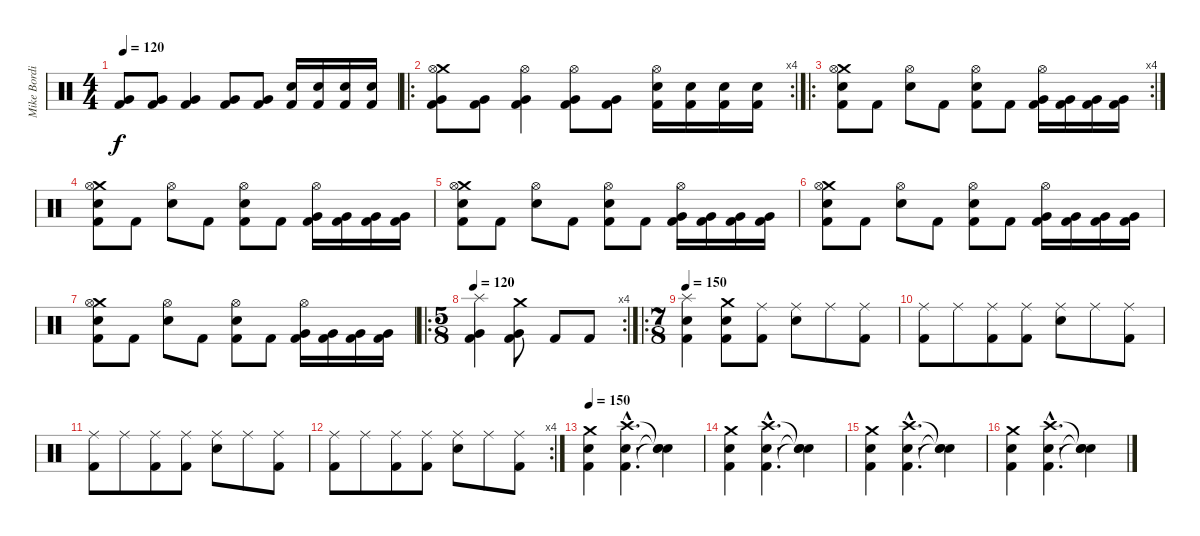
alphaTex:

\track ("Mike Bordin" "Mike Bordi") {instrument percussion}
\staff {score}
\articulation defaults
\ts (4 4)
\tempo 120
\clef neutral
\ks c
("Very Low Tom (hit)" "Kick (hit) 2").8{dy f} ("Very Low Tom (hit)" "Kick (hit) 2").8 ("Very Low Tom (hit)" "Kick (hit) 2").4 ("Very Low Tom (hit)" "Kick (hit) 2").8 ("Very Low Tom (hit)" "Kick (hit) 2").8 ("Electric Snare (hit)" "Kick (hit) 2").16 ("Electric Snare (hit)" "Kick (hit) 2").16 ("Electric Snare (hit)" "Kick (hit) 2").16 ("Electric Snare (hit)" "Kick (hit) 2").16 |
\ro
\rc 4
("Crash medium (hit)" "Hi-Hat (open)" "Very Low Tom (hit)" "Kick (hit) 2").8 ("Very Low Tom (hit)" "Kick (hit) 2").8 ("Hi-Hat (open)" "Very Low Tom (hit)" "Kick (hit) 2").4 ("Hi-Hat (open)" "Very Low Tom (hit)" "Kick (hit) 2").8 ("Very Low Tom (hit)" "Kick (hit) 2").8 ("Hi-Hat (open)" "Electric Snare (hit)" "Kick (hit) 2").16 ("Electric Snare (hit)" "Kick (hit) 2").16 ("Electric Snare (hit)" "Kick (hit) 2").16 ("Electric Snare (hit)" "Kick (hit) 2").16 |
\ro
\rc 4
("Crash medium (hit)" "Hi-Hat (open)" "Electric Snare (hit)" "Kick (hit) 2").8 "Kick (hit) 2".8 ("Hi-Hat (open)" "Electric Snare (hit)").8 "Kick (hit) 2".8 ("Hi-Hat (open)" "Electric Snare (hit)" "Kick (hit) 2").8 "Kick (hit) 2".8 ("Hi-Hat (open)" "Very Low Tom (hit)" "Kick (hit) 2").16 ("Very Low Tom (hit)" "Kick (hit) 2").16 ("Very Low Tom (hit)" "Kick (hit) 2").16 ("Very Low Tom (hit)" "Kick (hit) 2").16 |
("Crash medium (hit)" "Hi-Hat (open)" "Electric Snare (hit)" "Kick (hit) 2").8 "Kick (hit) 2".8 ("Hi-Hat (open)" "Electric Snare (hit)").8 "Kick (hit) 2".8 ("Hi-Hat (open)" "Electric Snare (hit)" "Kick (hit) 2").8 "Kick (hit) 2".8 ("Hi-Hat (open)" "Very Low Tom (hit)" "Kick (hit) 2").16 ("Very Low Tom (hit)" "Kick (hit) 2").16 ("Very Low Tom (hit)" "Kick (hit) 2").16 ("Very Low Tom (hit)" "Kick (hit) 2").16 |
("Crash medium (hit)" "Hi-Hat (open)" "Electric Snare (hit)" "Kick (hit) 2").8 "Kick (hit) 2".8 ("Hi-Hat (open)" "Electric Snare (hit)").8 "Kick (hit) 2".8 ("Hi-Hat (open)" "Electric Snare (hit)" "Kick (hit) 2").8 "Kick (hit) 2".8 ("Hi-Hat (open)" "Very Low Tom (hit)" "Kick (hit) 2").16 ("Very Low Tom (hit)" "Kick (hit) 2").16 ("Very Low Tom (hit)" "Kick (hit) 2").16 ("Very Low Tom (hit)" "Kick (hit) 2").16 |
("Crash medium (hit)" "Hi-Hat (open)" "Electric Snare (hit)" "Kick (hit) 2").8 "Kick (hit) 2".8 ("Hi-Hat (open)" "Electric Snare (hit)").8 "Kick (hit) 2".8 ("Hi-Hat (open)" "Electric Snare (hit)" "Kick (hit) 2").8 "Kick (hit) 2".8 ("Hi-Hat (open)" "Very Low Tom (hit)" "Kick (hit) 2").16 ("Very Low Tom (hit)" "Kick (hit) 2").16 ("Very Low Tom (hit)" "Kick (hit) 2").16 ("Very Low Tom (hit)" "Kick (hit) 2").16 |
("Crash medium (hit)" "Hi-Hat (open)" "Electric Snare (hit)" "Kick (hit) 2").8 "Kick (hit) 2".8 ("Hi-Hat (open)" "Electric Snare (hit)").8 "Kick (hit) 2".8 ("Hi-Hat (open)" "Electric Snare (hit)" "Kick (hit) 2").8 "Kick (hit) 2".8 ("Hi-Hat (open)" "Very Low Tom (hit)" "Kick (hit) 2").16 ("Very Low Tom (hit)" "Kick (hit) 2").16 ("Very Low Tom (hit)" "Kick (hit) 2").16 ("Very Low Tom (hit)" "Kick (hit) 2").16 |
\ro
\rc 4
\ts (5 8)
\tempo 120
("Splash (hit)" "Very Low Tom (hit)" "Kick (hit) 2").4 ("Crash medium (hit)" "Very Low Tom (hit)" "Kick (hit) 2").8 "Kick (hit) 2".8 "Kick (hit) 2".8 |
\ro
\ts (7 8)
\tempo 150
("Splash (hit)" "Electric Snare (hit)" "Kick (hit) 2").4 ("Crash medium (hit)" "Electric Snare (hit)" "Kick (hit) 2").8 ("Ride (middle)" "Kick (hit) 2").8 ("Ride (middle)" "Electric Snare (hit)").8 "Ride (middle)".8 ("Ride (middle)" "Kick (hit) 2").8 |
("Ride (middle)" "Kick (hit) 2").8 "Ride (middle)".8 ("Ride (middle)" "Kick (hit) 2").8 ("Ride (middle)" "Kick (hit) 2").8 ("Ride (middle)" "Electric Snare (hit)").8 "Ride (middle)".8 ("Ride (middle)" "Kick (hit) 2").8 |
("Ride (middle)" "Kick (hit) 2").8 "Ride (middle)".8 ("Ride (middle)" "Kick (hit) 2").8 ("Ride (middle)" "Kick (hit) 2").8 ("Ride (middle)" "Electric Snare (hit)").8 "Ride (middle)".8 ("Ride (middle)" "Kick (hit) 2").8 |
\rc 4
("Ride (middle)" "Kick (hit) 2").8 "Ride (middle)".8 ("Ride (middle)" "Kick (hit) 2").8 ("Ride (middle)" "Kick (hit) 2").8 ("Ride (middle)" "Electric Snare (hit)").8 "Ride (middle)".8 ("Ride (middle)" "Kick (hit) 2").8 |
\tempo 150
("Crash medium (hit)" "Electric Snare (hit)" "Kick (hit) 2").4 ("Crash high (hit)"{hac} "Electric Snare (hit)"{hac} "Kick (hit) 2"{hac}).4{d} ("Snare (hit)"{t} "Snare (hit)"{t} "Snare (hit)"{t}).4 |
("Crash medium (hit)" "Electric Snare (hit)" "Kick (hit) 2").4 ("Crash high (hit)"{hac} "Electric Snare (hit)"{hac} "Kick (hit) 2"{hac}).4{d} ("Snare (hit)"{t} "Snare (hit)"{t} "Snare (hit)"{t}).4 |
("Crash medium (hit)" "Electric Snare (hit)" "Kick (hit) 2").4 ("Crash high (hit)"{hac} "Electric Snare (hit)"{hac} "Kick (hit) 2"{hac}).4{d} ("Snare (hit)"{t} "Snare (hit)"{t} "Snare (hit)"{t}).4 |
("Crash medium (hit)" "Electric Snare (hit)" "Kick (hit) 2").4 ("Crash high (hit)"{hac} "Electric Snare (hit)"{hac} "Kick (hit) 2"{hac}).4{d} ("Snare (hit)"{t} "Snare (hit)"{t} "Snare (hit)"{t}).4
